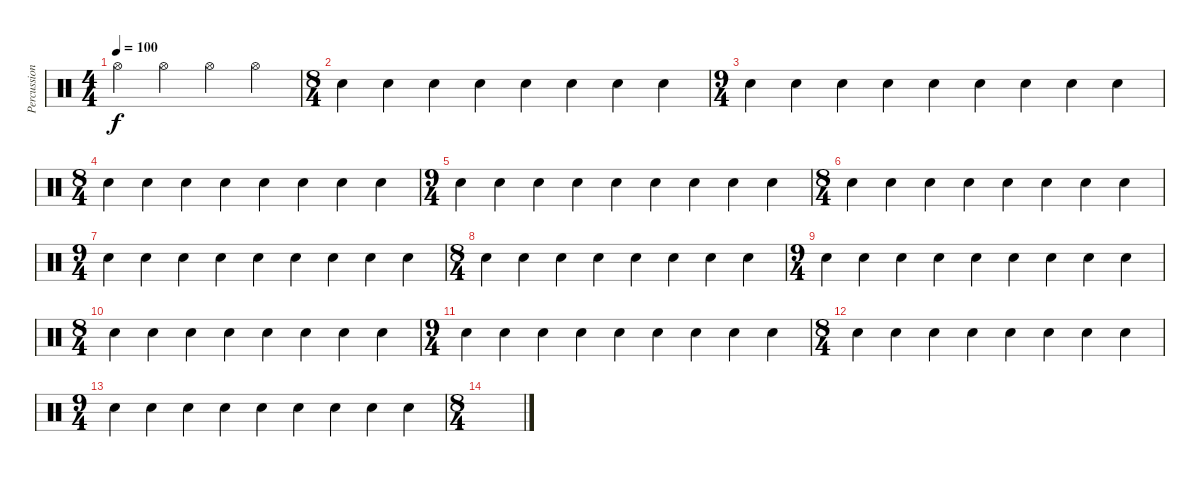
\track ("Percussion" "Percussion") {instrument percussion}
\staff {score}
\articulation defaults
\ts (4 4)
\tempo 100
\clef neutral
\ks c "Hi-Hat (open)".4{dy f} "Hi-Hat (open)".4 "Hi-Hat (open)".4 "Hi-Hat (open)".4
|
\ts (8 4)
"Electric Snare (hit)".4 "Electric Snare (hit)".4 "Electric Snare (hit)".4 "Electric Snare (hit)".4 "Electric Snare (hit)".4 "Electric Snare (hit)".4 "Electric Snare (hit)".4 "Electric Snare (hit)".4 |
\ts (9 4)
"Electric Snare (hit)".4 "Electric Snare (hit)".4 "Electric Snare (hit)".4 "Electric Snare (hit)".4 "Electric Snare (hit)".4 "Electric Snare (hit)".4 "Electric Snare (hit)".4 "Electric Snare (hit)".4 "Electric Snare (hit)".4 |
\ts (8 4)
"Electric Snare (hit)".4 "Electric Snare (hit)".4 "Electric Snare (hit)".4 "Electric Snare (hit)".4 "Electric Snare (hit)".4 "Electric Snare (hit)".4 "Electric Snare (hit)".4 "Electric Snare (hit)".4 |
\ts (9 4)
"Electric Snare (hit)".4 "Electric Snare (hit)".4 "Electric Snare (hit)".4 "Electric Snare (hit)".4 "Electric Snare (hit)".4 "Electric Snare (hit)".4 "Electric Snare (hit)".4 "Electric Snare (hit)".4 "Electric Snare (hit)".4 |
\ts (8 4)
"Electric Snare (hit)".4 "Electric Snare (hit)".4 "Electric Snare (hit)".4 "Electric Snare (hit)".4 "Electric Snare (hit)".4 "Electric Snare (hit)".4 "Electric Snare (hit)".4 "Electric Snare (hit)".4 |
\ts (9 4)
"Electric Snare (hit)".4 "Electric Snare (hit)".4 "Electric Snare (hit)".4 "Electric Snare (hit)".4 "Electric Snare (hit)".4 "Electric Snare (hit)".4 "Electric Snare (hit)".4 "Electric Snare (hit)".4 "Electric Snare (hit)".4 |
\ts (8 4)
"Electric Snare (hit)".4 "Electric Snare (hit)".4 "Electric Snare (hit)".4 "Electric Snare (hit)".4 "Electric Snare (hit)".4 "Electric Snare (hit)".4 "Electric Snare (hit)".4 "Electric Snare (hit)".4 |
\ts (9 4)
"Electric Snare (hit)".4 "Electric Snare (hit)".4 "Electric Snare (hit)".4 "Electric Snare (hit)".4 "Electric Snare (hit)".4 "Electric Snare (hit)".4 "Electric Snare (hit)".4 "Electric Snare (hit)".4 "Electric Snare (hit)".4 |
\ts (8 4)
"Electric Snare (hit)".4 "Electric Snare (hit)".4 "Electric Snare (hit)".4 "Electric Snare (hit)".4 "Electric Snare (hit)".4 "Electric Snare (hit)".4 "Electric Snare (hit)".4 "Electric Snare (hit)".4 |
\ts (9 4)
"Electric Snare (hit)".4 "Electric Snare (hit)".4 "Electric Snare (hit)".4 "Electric Snare (hit)".4 "Electric Snare (hit)".4 "Electric Snare (hit)".4 "Electric Snare (hit)".4 "Electric Snare (hit)".4 "Electric Snare (hit)".4 |
\ts (8 4)
"Electric Snare (hit)".4 "Electric Snare (hit)".4 "Electric Snare (hit)".4 "Electric Snare (hit)".4 "Electric Snare (hit)".4 "Electric Snare (hit)".4 "Electric Snare (hit)".4 "Electric Snare (hit)".4 |
\ts (9 4)
"Electric Snare (hit)".4 "Electric Snare (hit)".4 "Electric Snare (hit)".4 "Electric Snare (hit)".4 "Electric Snare (hit)".4 "Electric Snare (hit)".4 "Electric Snare (hit)".4 "Electric Snare (hit)".4 "Electric Snare (hit)".4 |
\ts (8 4)
